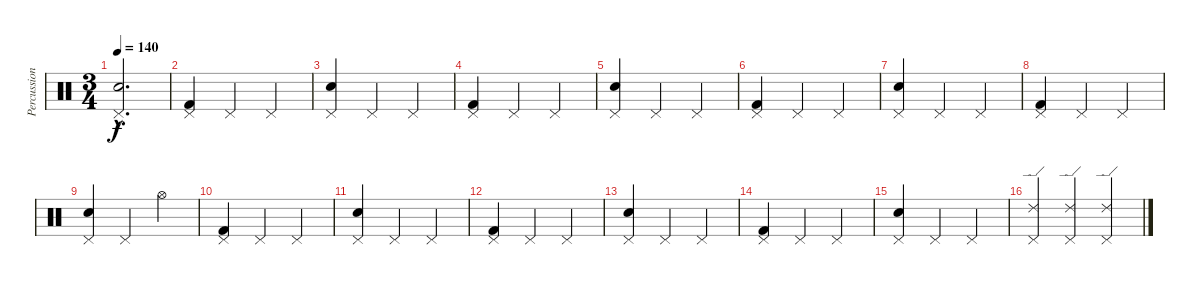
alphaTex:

\track ("Percussion" "Percussion") {instrument percussion}
\staff {score}
\articulation defaults
\ts (3 4)
\tempo 140
\clef neutral
\ks c
("Pedal Hi-Hat (hit)"{hac} "Electric Snare (hit)"{hac}).2{d dy f} |
("Pedal Hi-Hat (hit)" "Kick (hit) 2").4 "Pedal Hi-Hat (hit)".4 "Pedal Hi-Hat (hit)".4 |
("Pedal Hi-Hat (hit)" "Snare (hit) 2").4 "Pedal Hi-Hat (hit)".4 "Pedal Hi-Hat (hit)".4 |
("Pedal Hi-Hat (hit)" "Kick (hit) 2").4 "Pedal Hi-Hat (hit)".4 "Pedal Hi-Hat (hit)".4 |
("Pedal Hi-Hat (hit)" "Snare (hit) 2").4 "Pedal Hi-Hat (hit)".4 "Pedal Hi-Hat (hit)".4 |
("Pedal Hi-Hat (hit)" "Kick (hit) 2").4 "Pedal Hi-Hat (hit)".4 "Pedal Hi-Hat (hit)".4 |
("Pedal Hi-Hat (hit)" "Snare (hit) 2").4 "Pedal Hi-Hat (hit)".4 "Pedal Hi-Hat (hit)".4 |
("Pedal Hi-Hat (hit)" "Kick (hit) 2").4 "Pedal Hi-Hat (hit)".4 "Pedal Hi-Hat (hit)".4 |
("Pedal Hi-Hat (hit)" "Snare (hit) 2").4 "Pedal Hi-Hat (hit)".4 "Hi-Hat (open)".4 |
("Pedal Hi-Hat (hit)" "Kick (hit) 2").4 "Pedal Hi-Hat (hit)".4 "Pedal Hi-Hat (hit)".4 |
("Pedal Hi-Hat (hit)" "Snare (hit) 2").4 "Pedal Hi-Hat (hit)".4 "Pedal Hi-Hat (hit)".4 |
("Pedal Hi-Hat (hit)" "Kick (hit) 2").4 "Pedal Hi-Hat (hit)".4 "Pedal Hi-Hat (hit)".4 |
("Pedal Hi-Hat (hit)" "Snare (hit) 2").4 "Pedal Hi-Hat (hit)".4 "Pedal Hi-Hat (hit)".4 |
("Pedal Hi-Hat (hit)" "Kick (hit) 2").4 "Pedal Hi-Hat (hit)".4 "Pedal Hi-Hat (hit)".4 |
("Pedal Hi-Hat (hit)" "Snare (hit) 2").4 "Pedal Hi-Hat (hit)".4 "Pedal Hi-Hat (hit)".4 |
("Pedal Hi-Hat (hit)" "Ride (edge) 2").4 ("Pedal Hi-Hat (hit)" "Ride (edge) 2").4 ("Pedal Hi-Hat (hit)" "Ride (edge) 2").4
